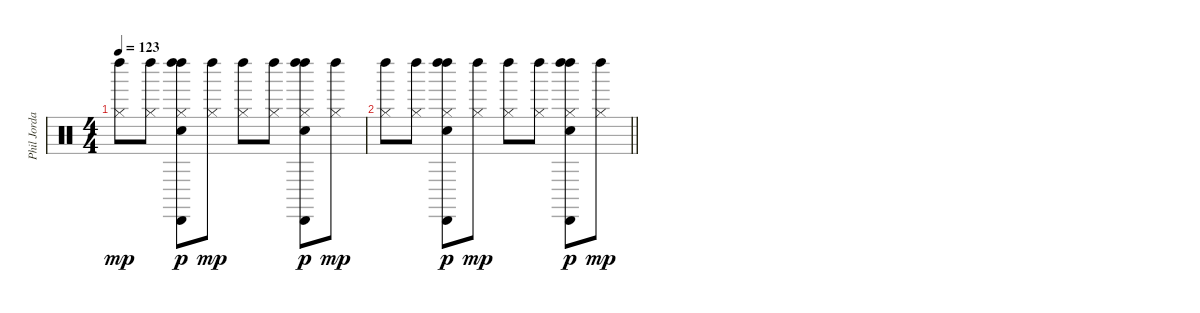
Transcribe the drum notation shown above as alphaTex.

\track ("Phil Jordan" "Phil Jorda") {instrument percussion}
\staff {score}
\articulation defaults
\ts (4 4)
\tempo 123
\clef neutral
\ks c
("Left Maraca (hit)" "Hi-Hat (closed)").8{dy mp} ("Left Maraca (hit)" "Hi-Hat (closed)").8 ("Left Maraca (hit)" "Hi-Hat (closed)" "Cabasa (hit)" "Left Maraca (hit)" "Snare (hit) 2").8{dy p} ("Left Maraca (hit)" "Hi-Hat (closed)").8{dy mp} ("Left Maraca (hit)" "Hi-Hat (closed)").8 ("Left Maraca (hit)" "Hi-Hat (closed)").8 ("Left Maraca (hit)" "Hi-Hat (closed)" "Cabasa (hit)" "Left Maraca (hit)" "Snare (hit) 2").8{dy p} ("Left Maraca (hit)" "Hi-Hat (closed)").8{dy mp} |
\barLineRight lightlight
("Left Maraca (hit)" "Hi-Hat (closed)").8 ("Left Maraca (hit)" "Hi-Hat (closed)").8 ("Left Maraca (hit)" "Hi-Hat (closed)" "Cabasa (hit)" "Left Maraca (hit)" "Snare (hit) 2").8{dy p} ("Left Maraca (hit)" "Hi-Hat (closed)").8{dy mp} ("Left Maraca (hit)" "Hi-Hat (closed)").8 ("Left Maraca (hit)" "Hi-Hat (closed)").8 ("Left Maraca (hit)" "Hi-Hat (closed)" "Cabasa (hit)" "Left Maraca (hit)" "Snare (hit) 2").8{dy p} ("Left Maraca (hit)" "Hi-Hat (closed)").8{dy mp}
